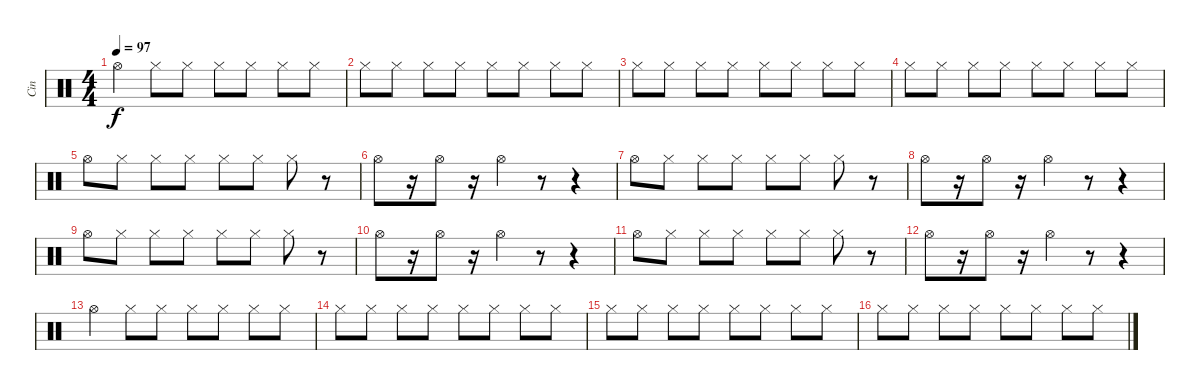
\track ("Cin" "Cin") {instrument percussion}
\staff {score}
\articulation defaults
\ts (4 4)
\tempo 97
\clef neutral
\ks c "Hi-Hat (open)".4{dy f} "Hi-Hat (closed)".8 "Hi-Hat (closed)".8 "Hi-Hat (closed)".8 "Hi-Hat (closed)".8 "Hi-Hat (closed)".8 "Hi-Hat (closed)".8
|
"Hi-Hat (closed)".8 "Hi-Hat (closed)".8 "Hi-Hat (closed)".8 "Hi-Hat (closed)".8 "Hi-Hat (closed)".8 "Hi-Hat (closed)".8 "Hi-Hat (closed)".8 "Hi-Hat (closed)".8 |
"Hi-Hat (closed)".8 "Hi-Hat (closed)".8 "Hi-Hat (closed)".8 "Hi-Hat (closed)".8 "Hi-Hat (closed)".8 "Hi-Hat (closed)".8 "Hi-Hat (closed)".8 "Hi-Hat (closed)".8 |
"Hi-Hat (closed)".8 "Hi-Hat (closed)".8 "Hi-Hat (closed)".8 "Hi-Hat (closed)".8 "Hi-Hat (closed)".8 "Hi-Hat (closed)".8 "Hi-Hat (closed)".8 "Hi-Hat (closed)".8 |
"Hi-Hat (open)".8 "Hi-Hat (closed)".8 "Hi-Hat (closed)".8 "Hi-Hat (closed)".8 "Hi-Hat (closed)".8 "Hi-Hat (closed)".8 "Hi-Hat (closed)".8 r.8 |
"Hi-Hat (open)".8 r.16 "Hi-Hat (open)".8 r.16 "Hi-Hat (open)".4 r.8 r.4 |
"Hi-Hat (open)".8 "Hi-Hat (closed)".8 "Hi-Hat (closed)".8 "Hi-Hat (closed)".8 "Hi-Hat (closed)".8 "Hi-Hat (closed)".8 "Hi-Hat (closed)".8 r.8 |
"Hi-Hat (open)".8 r.16 "Hi-Hat (open)".8 r.16 "Hi-Hat (open)".4 r.8 r.4 |
"Hi-Hat (open)".8 "Hi-Hat (closed)".8 "Hi-Hat (closed)".8 "Hi-Hat (closed)".8 "Hi-Hat (closed)".8 "Hi-Hat (closed)".8 "Hi-Hat (closed)".8 r.8 |
"Hi-Hat (open)".8 r.16 "Hi-Hat (open)".8 r.16 "Hi-Hat (open)".4 r.8 r.4 |
"Hi-Hat (open)".8 "Hi-Hat (closed)".8 "Hi-Hat (closed)".8 "Hi-Hat (closed)".8 "Hi-Hat (closed)".8 "Hi-Hat (closed)".8 "Hi-Hat (closed)".8 r.8 |
"Hi-Hat (open)".8 r.16 "Hi-Hat (open)".8 r.16 "Hi-Hat (open)".4 r.8 r.4 |
"Hi-Hat (open)".4 "Hi-Hat (closed)".8 "Hi-Hat (closed)".8 "Hi-Hat (closed)".8 "Hi-Hat (closed)".8 "Hi-Hat (closed)".8 "Hi-Hat (closed)".8 |
"Hi-Hat (closed)".8 "Hi-Hat (closed)".8 "Hi-Hat (closed)".8 "Hi-Hat (closed)".8 "Hi-Hat (closed)".8 "Hi-Hat (closed)".8 "Hi-Hat (closed)".8 "Hi-Hat (closed)".8 |
"Hi-Hat (closed)".8 "Hi-Hat (closed)".8 "Hi-Hat (closed)".8 "Hi-Hat (closed)".8 "Hi-Hat (closed)".8 "Hi-Hat (closed)".8 "Hi-Hat (closed)".8 "Hi-Hat (closed)".8 |
"Hi-Hat (closed)".8 "Hi-Hat (closed)".8 "Hi-Hat (closed)".8 "Hi-Hat (closed)".8 "Hi-Hat (closed)".8 "Hi-Hat (closed)".8 "Hi-Hat (closed)".8 "Hi-Hat (closed)".8
